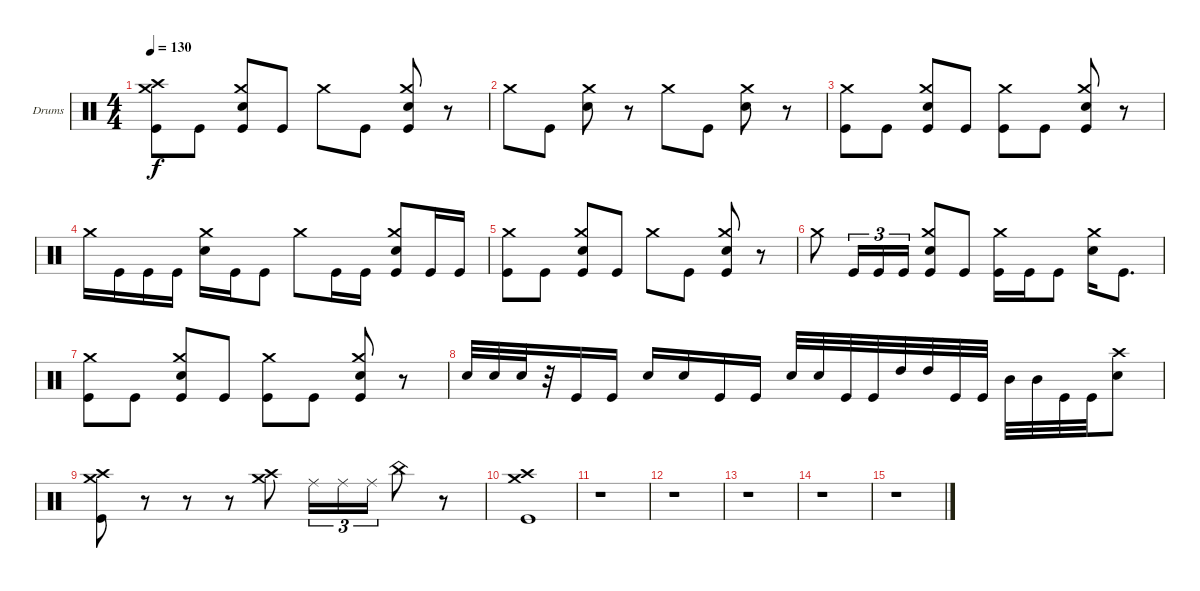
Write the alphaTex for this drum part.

\bracketExtendMode groupsimilarinstruments
\firstSystemTrackNameOrientation horizontal
\otherSystemsTrackNameOrientation horizontal
\track ("Boum Boum" "Drums") {instrument percussion}
\staff {score}
\articulation defaults
\ts (4 4)
\tempo 130
\clef neutral
\ks c
("Kick (hit)" "Crash medium (hit)" "Crash high (hit)").8{dy f} "Kick (hit)".8 ("Kick (hit)" "Crash medium (hit)" "Snare (hit) 2").8 "Kick (hit)".8 "Crash medium (hit)".8 "Kick (hit)".8 ("Kick (hit)" "Crash medium (hit)" "Snare (hit) 2").8 r.8 |
"Crash medium (hit)".8 "Kick (hit)".8 ("Crash medium (hit)" "Snare (hit) 2").8 r.8 "Crash medium (hit)".8 "Kick (hit)".8 ("Crash medium (hit)" "Snare (hit) 2").8 r.8 |
("Kick (hit)" "Crash medium (hit)").8 "Kick (hit)".8 ("Kick (hit)" "Crash medium (hit)" "Snare (hit) 2").8 "Kick (hit)".8 ("Kick (hit)" "Crash medium (hit)").8 "Kick (hit)".8 ("Kick (hit)" "Crash medium (hit)" "Snare (hit) 2").8 r.8 |
"Crash medium (hit)".16 "Kick (hit)".16 "Kick (hit)".16 "Kick (hit)".16 ("Crash medium (hit)" "Snare (hit) 2").16 "Kick (hit)".16 "Kick (hit)".8 "Crash medium (hit)".8 "Kick (hit)".16 "Kick (hit)".16 ("Kick (hit)" "Crash medium (hit)" "Snare (hit) 2").8 "Kick (hit)".16 "Kick (hit)".16 |
("Kick (hit)" "Crash medium (hit)").8 "Kick (hit)".8 ("Kick (hit)" "Crash medium (hit)" "Snare (hit) 2").8 "Kick (hit)".8 "Crash medium (hit)".8 "Kick (hit)".8 ("Kick (hit)" "Crash medium (hit)" "Snare (hit) 2").8 r.8 |
"Crash medium (hit)".8 "Kick (hit)".16{tu (3 2)} "Kick (hit)".16{tu (3 2)} "Kick (hit)".16{tu (3 2)} ("Kick (hit)" "Crash medium (hit)" "Snare (hit) 2").8 "Kick (hit)".8 ("Crash medium (hit)" "Kick (hit)").16 "Kick (hit)".16 "Kick (hit)".8 ("Crash medium (hit)" "Snare (hit) 2").16 "Kick (hit)".8{d} |
("Crash medium (hit)" "Kick (hit)").8 "Kick (hit)".8 ("Kick (hit)" "Crash medium (hit)" "Snare (hit) 2").8 "Kick (hit)".8 ("Kick (hit)" "Crash medium (hit)").8 "Kick (hit)".8 ("Kick (hit)" "Crash medium (hit)" "Snare (hit) 2").8 r.8 |
"Snare (hit) 2".32 "Snare (hit) 2".32 "Snare (hit) 2".32 r.32 "Kick (hit)".16 "Kick (hit)".16 "Snare (hit) 2".16 "Snare (hit) 2".16 "Kick (hit)".16 "Kick (hit)".16 "Snare (hit) 2".32 "Snare (hit) 2".32 "Kick (hit)".32 "Kick (hit)".32 "High Tom (hit)".32 "High Tom (hit)".32 "Kick (hit)".32 "Kick (hit)".32 "Mid Tom (hit)".32 "Mid Tom (hit)".32 "Kick (hit)".32 "Kick (hit)".32 ("Snare (hit) 2" "Crash high (hit)").8 |
("Kick (hit)" "Crash medium (hit)" "Crash high (hit)").8 r.8 r.8 r.8 ("Crash medium (hit)" "Crash high (hit)").8 "Ride (middle)".16{tu (3 2)} "Ride (middle)".16{tu (3 2)} "Ride (middle)".16{tu (3 2)} "China (hit)".8 r.8 |
("Crash high (hit)" "Crash medium (hit)" "Kick (hit)").1 |
r.1 |
r.1 |
r.1 |
r.1 |
r.1
